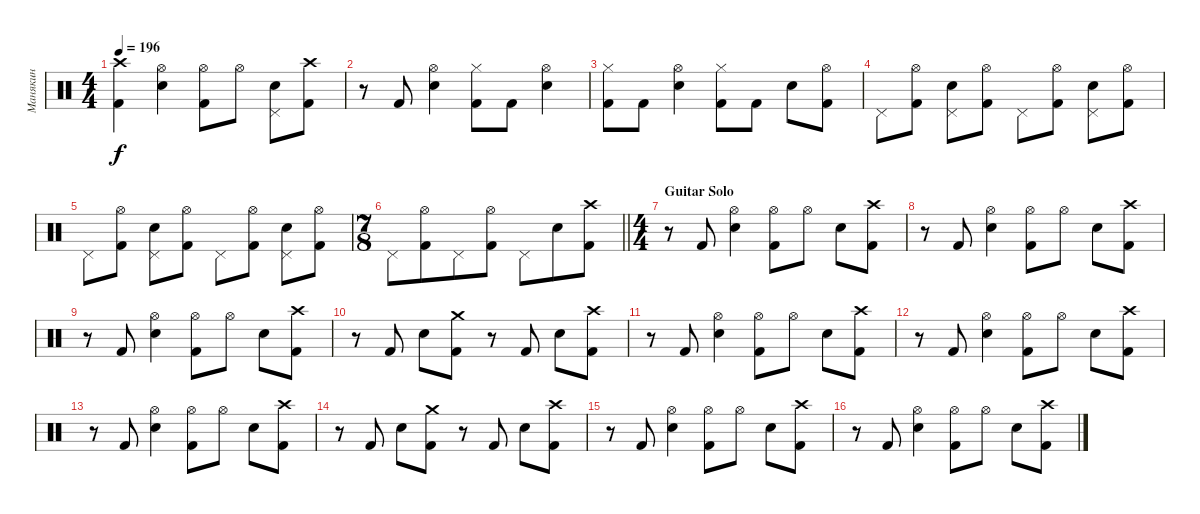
\track ("Манякин" "Манякин") {instrument percussion}
\staff {score}
\articulation defaults
\ts (4 4)
\tempo 196
\clef neutral
\ks c
("Crash high (hit)" "Kick (hit) 2").4{dy f} ("Hi-Hat (open)" "Electric Snare (hit)").4 ("Hi-Hat (open)" "Kick (hit) 2").8 "Hi-Hat (open)".8 ("Electric Snare (hit)" "Pedal Hi-Hat (hit)").8 ("Crash high (hit)" "Kick (hit) 2").8 |
r.8 "Kick (hit) 2".8 ("Hi-Hat (open)" "Electric Snare (hit)").4 ("Hi-Hat (closed)" "Kick (hit) 2").8 "Kick (hit) 2".8 ("Hi-Hat (open)" "Electric Snare (hit)").4 |
("Hi-Hat (closed)" "Kick (hit) 2").8 "Kick (hit) 2".8 ("Hi-Hat (open)" "Electric Snare (hit)").4 ("Hi-Hat (closed)" "Kick (hit) 2").8 "Kick (hit) 2".8 "Electric Snare (hit)".8 ("Hi-Hat (open)" "Kick (hit) 2").8 |
"Pedal Hi-Hat (hit)".8 ("Hi-Hat (open)" "Kick (hit) 2").8 ("Electric Snare (hit)" "Pedal Hi-Hat (hit)").8 ("Hi-Hat (open)" "Kick (hit) 2").8 "Pedal Hi-Hat (hit)".8 ("Hi-Hat (open)" "Kick (hit) 2").8 ("Electric Snare (hit)" "Pedal Hi-Hat (hit)").8 ("Hi-Hat (open)" "Kick (hit) 2").8 |
"Pedal Hi-Hat (hit)".8 ("Hi-Hat (open)" "Kick (hit) 2").8 ("Electric Snare (hit)" "Pedal Hi-Hat (hit)").8 ("Hi-Hat (open)" "Kick (hit) 2").8 "Pedal Hi-Hat (hit)".8 ("Hi-Hat (open)" "Kick (hit) 2").8 ("Electric Snare (hit)" "Pedal Hi-Hat (hit)").8 ("Hi-Hat (open)" "Kick (hit) 2").8 |
\ts (7 8)
\barLineRight lightlight "Pedal Hi-Hat (hit)".8
("Hi-Hat (open)" "Kick (hit) 2").8 "Pedal Hi-Hat (hit)".8 ("Hi-Hat (open)" "Kick (hit) 2").8 "Pedal Hi-Hat (hit)".8 "Electric Snare (hit)".8 ("Crash high (hit)" "Kick (hit) 2").8 |
\ts (4 4)
\section ("" "Guitar Solo")
r.8 "Kick (hit) 2".8 ("Hi-Hat (open)" "Electric Snare (hit)").4 ("Hi-Hat (open)" "Kick (hit) 2").8 "Hi-Hat (open)".8 "Electric Snare (hit)".8 ("Crash high (hit)" "Kick (hit) 2").8 |
r.8 "Kick (hit) 2".8 ("Hi-Hat (open)" "Electric Snare (hit)").4 ("Hi-Hat (open)" "Kick (hit) 2").8 "Hi-Hat (open)".8 "Electric Snare (hit)".8 ("Crash high (hit)" "Kick (hit) 2").8 |
r.8 "Kick (hit) 2".8 ("Hi-Hat (open)" "Electric Snare (hit)").4 ("Hi-Hat (open)" "Kick (hit) 2").8 "Hi-Hat (open)".8 "Electric Snare (hit)".8 ("Crash high (hit)" "Kick (hit) 2").8 |
r.8 "Kick (hit) 2".8 "Electric Snare (hit)".8 ("Crash medium (hit)" "Kick (hit) 2").8 r.8 "Kick (hit) 2".8 "Electric Snare (hit)".8 ("Crash high (hit)" "Kick (hit) 2").8 |
r.8 "Kick (hit) 2".8 ("Hi-Hat (open)" "Electric Snare (hit)").4 ("Hi-Hat (open)" "Kick (hit) 2").8 "Hi-Hat (open)".8 "Electric Snare (hit)".8 ("Crash high (hit)" "Kick (hit) 2").8 |
r.8 "Kick (hit) 2".8 ("Hi-Hat (open)" "Electric Snare (hit)").4 ("Hi-Hat (open)" "Kick (hit) 2").8 "Hi-Hat (open)".8 "Electric Snare (hit)".8 ("Crash high (hit)" "Kick (hit) 2").8 |
r.8 "Kick (hit) 2".8 ("Hi-Hat (open)" "Electric Snare (hit)").4 ("Hi-Hat (open)" "Kick (hit) 2").8 "Hi-Hat (open)".8 "Electric Snare (hit)".8 ("Crash high (hit)" "Kick (hit) 2").8 |
r.8 "Kick (hit) 2".8 "Electric Snare (hit)".8 ("Crash medium (hit)" "Kick (hit) 2").8 r.8 "Kick (hit) 2".8 "Electric Snare (hit)".8 ("Crash high (hit)" "Kick (hit) 2").8 |
r.8 "Kick (hit) 2".8 ("Hi-Hat (open)" "Electric Snare (hit)").4 ("Hi-Hat (open)" "Kick (hit) 2").8 "Hi-Hat (open)".8 "Electric Snare (hit)".8 ("Crash high (hit)" "Kick (hit) 2").8 |
r.8 "Kick (hit) 2".8 ("Hi-Hat (open)" "Electric Snare (hit)").4 ("Hi-Hat (open)" "Kick (hit) 2").8 "Hi-Hat (open)".8 "Electric Snare (hit)".8 ("Crash high (hit)" "Kick (hit) 2").8
